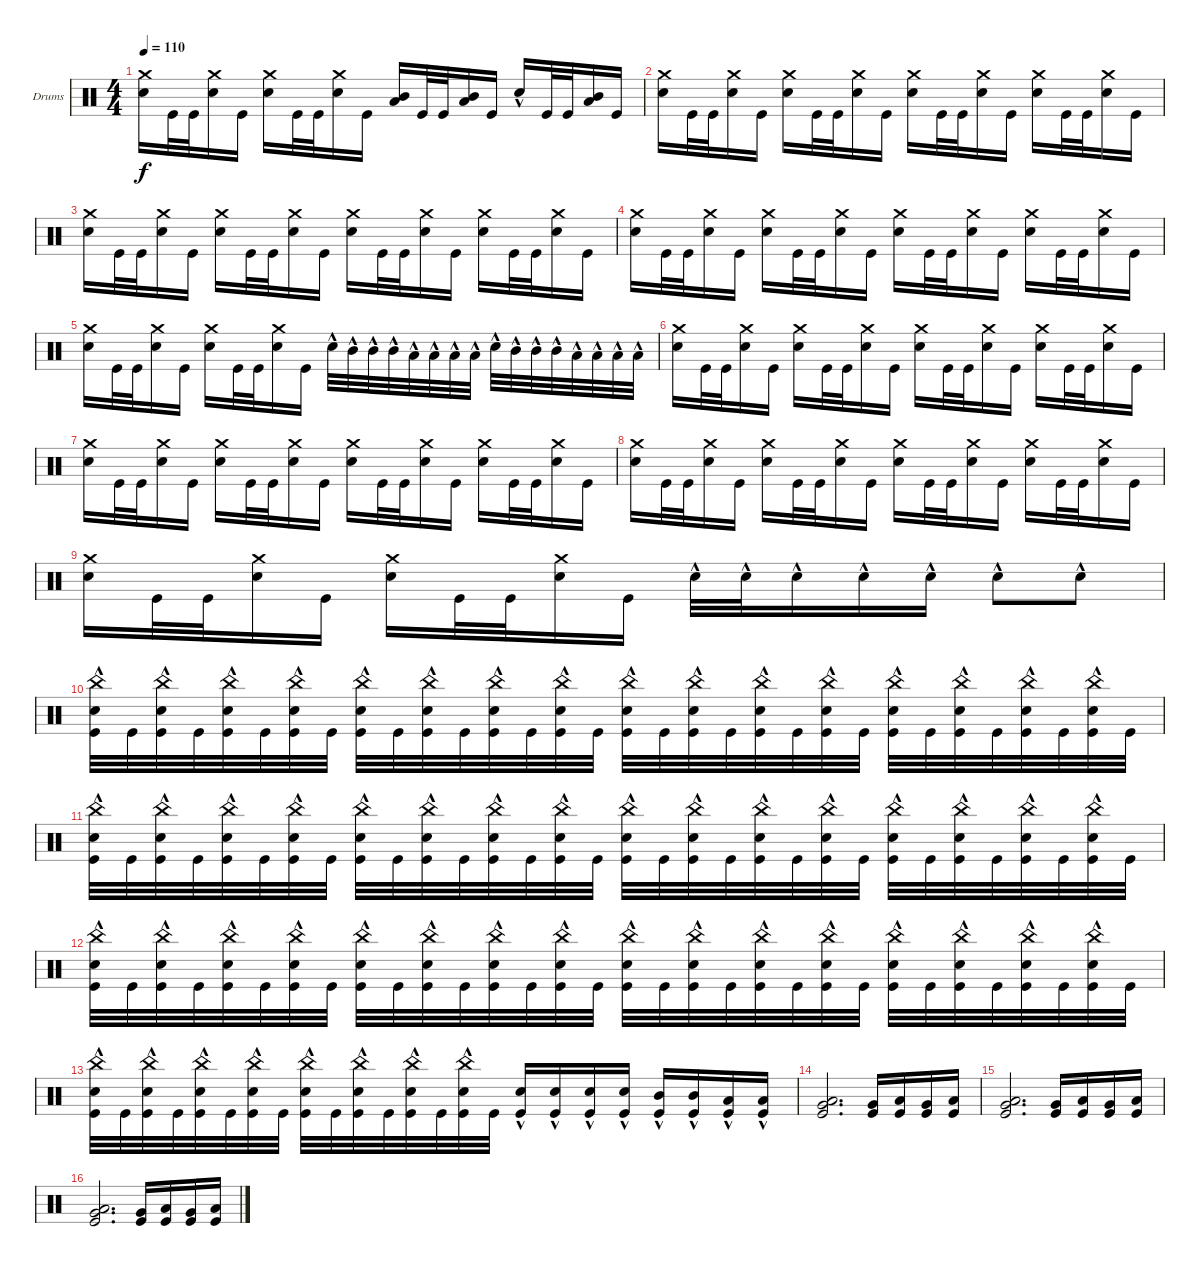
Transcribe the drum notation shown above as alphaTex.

\defaultSystemsLayout 4
\bracketExtendMode groupsimilarinstruments
\firstSystemTrackNameOrientation horizontal
\otherSystemsTrackNameOrientation horizontal
\track ("Drumkit" "Drums") {instrument percussion}
\staff {score}
\articulation defaults
\ts (4 4)
\tempo 110
\clef neutral
\scale
0.333333
\ks c
("Snare (hit) 2" "Crash medium (hit)").16{dy f} "Kick (hit)".32 "Kick (hit)".32 ("Snare (hit) 2" "Crash medium (hit)").16 "Kick (hit)".16 ("Snare (hit) 2" "Crash medium (hit)").16 "Kick (hit)".32 "Kick (hit)".32 ("Snare (hit) 2" "Crash medium (hit)").16 "Kick (hit)".16 ("Mid Tom (hit)" "Low Tom (hit)").16 "Kick (hit)".32 "Kick (hit)".32 ("Low Tom (hit)" "Mid Tom (hit)").16 "Kick (hit)".16 "Snare (hit) 2"{hac}.16 "Kick (hit)".32 "Kick (hit)".32 ("Mid Tom (hit)" "Low Tom (hit)").16 "Kick (hit)".16 |
\scale
0.333333 ("Snare (hit) 2" "Crash medium (hit)").16 "Kick (hit)".32 "Kick (hit)".32 ("Snare (hit) 2" "Crash medium (hit)").16 "Kick (hit)".16 ("Snare (hit) 2" "Crash medium (hit)").16 "Kick (hit)".32 "Kick (hit)".32 ("Snare (hit) 2" "Crash medium (hit)").16 "Kick (hit)".16 ("Snare (hit) 2" "Crash medium (hit)").16 "Kick (hit)".32 "Kick (hit)".32 ("Snare (hit) 2" "Crash medium (hit)").16 "Kick (hit)".16 ("Snare (hit) 2" "Crash medium (hit)").16 "Kick (hit)".32 "Kick (hit)".32 ("Snare (hit) 2" "Crash medium (hit)").16 "Kick (hit)".16 |
\scale
0.333333 ("Snare (hit) 2" "Crash medium (hit)").16 "Kick (hit)".32 "Kick (hit)".32 ("Snare (hit) 2" "Crash medium (hit)").16 "Kick (hit)".16 ("Snare (hit) 2" "Crash medium (hit)").16 "Kick (hit)".32 "Kick (hit)".32 ("Snare (hit) 2" "Crash medium (hit)").16 "Kick (hit)".16 ("Snare (hit) 2" "Crash medium (hit)").16 "Kick (hit)".32 "Kick (hit)".32 ("Snare (hit) 2" "Crash medium (hit)").16 "Kick (hit)".16 ("Snare (hit) 2" "Crash medium (hit)").16 "Kick (hit)".32 "Kick (hit)".32 ("Snare (hit) 2" "Crash medium (hit)").16 "Kick (hit)".16 |
\scale
0.333333 ("Snare (hit) 2" "Crash medium (hit)").16 "Kick (hit)".32 "Kick (hit)".32 ("Snare (hit) 2" "Crash medium (hit)").16 "Kick (hit)".16 ("Snare (hit) 2" "Crash medium (hit)").16 "Kick (hit)".32 "Kick (hit)".32 ("Snare (hit) 2" "Crash medium (hit)").16 "Kick (hit)".16 ("Snare (hit) 2" "Crash medium (hit)").16 "Kick (hit)".32 "Kick (hit)".32 ("Snare (hit) 2" "Crash medium (hit)").16 "Kick (hit)".16 ("Snare (hit) 2" "Crash medium (hit)").16 "Kick (hit)".32 "Kick (hit)".32 ("Snare (hit) 2" "Crash medium (hit)").16 "Kick (hit)".16 |
\scale
0.333333 ("Snare (hit) 2" "Crash medium (hit)").16 "Kick (hit)".32 "Kick (hit)".32 ("Snare (hit) 2" "Crash medium (hit)").16 "Kick (hit)".16 ("Snare (hit) 2" "Crash medium (hit)").16 "Kick (hit)".32 "Kick (hit)".32 ("Snare (hit) 2" "Crash medium (hit)").16 "Kick (hit)".16 "Snare (hit) 2"{hac}.32 "Mid Tom (hit)"{hac}.32 "Mid Tom (hit)"{hac}.32 "Mid Tom (hit)"{hac}.32 "Low Tom (hit)"{hac}.32 "Low Tom (hit)"{hac}.32 "Low Tom (hit)"{hac}.32 "Low Tom (hit)"{hac}.32 "Snare (hit) 2"{hac}.32 "Mid Tom (hit)"{hac}.32 "Mid Tom (hit)"{hac}.32 "Mid Tom (hit)"{hac}.32 "Low Tom (hit)"{hac}.32 "Low Tom (hit)"{hac}.32 "Low Tom (hit)"{hac}.32 "Low Tom (hit)"{hac}.32 |
\scale
0.333333 ("Snare (hit) 2" "Crash medium (hit)").16 "Kick (hit)".32 "Kick (hit)".32 ("Snare (hit) 2" "Crash medium (hit)").16 "Kick (hit)".16 ("Snare (hit) 2" "Crash medium (hit)").16 "Kick (hit)".32 "Kick (hit)".32 ("Snare (hit) 2" "Crash medium (hit)").16 "Kick (hit)".16 ("Snare (hit) 2" "Crash medium (hit)").16 "Kick (hit)".32 "Kick (hit)".32 ("Snare (hit) 2" "Crash medium (hit)").16 "Kick (hit)".16 ("Snare (hit) 2" "Crash medium (hit)").16 "Kick (hit)".32 "Kick (hit)".32 ("Snare (hit) 2" "Crash medium (hit)").16 "Kick (hit)".16 |
\scale
0.333333 ("Snare (hit) 2" "Crash medium (hit)").16 "Kick (hit)".32 "Kick (hit)".32 ("Snare (hit) 2" "Crash medium (hit)").16 "Kick (hit)".16 ("Snare (hit) 2" "Crash medium (hit)").16 "Kick (hit)".32 "Kick (hit)".32 ("Snare (hit) 2" "Crash medium (hit)").16 "Kick (hit)".16 ("Snare (hit) 2" "Crash medium (hit)").16 "Kick (hit)".32 "Kick (hit)".32 ("Snare (hit) 2" "Crash medium (hit)").16 "Kick (hit)".16 ("Snare (hit) 2" "Crash medium (hit)").16 "Kick (hit)".32 "Kick (hit)".32 ("Snare (hit) 2" "Crash medium (hit)").16 "Kick (hit)".16 |
\scale
0.333333 ("Snare (hit) 2" "Crash medium (hit)").16 "Kick (hit)".32 "Kick (hit)".32 ("Snare (hit) 2" "Crash medium (hit)").16 "Kick (hit)".16 ("Snare (hit) 2" "Crash medium (hit)").16 "Kick (hit)".32 "Kick (hit)".32 ("Snare (hit) 2" "Crash medium (hit)").16 "Kick (hit)".16 ("Snare (hit) 2" "Crash medium (hit)").16 "Kick (hit)".32 "Kick (hit)".32 ("Snare (hit) 2" "Crash medium (hit)").16 "Kick (hit)".16 ("Snare (hit) 2" "Crash medium (hit)").16 "Kick (hit)".32 "Kick (hit)".32 ("Snare (hit) 2" "Crash medium (hit)").16 "Kick (hit)".16 |
\scale
0.333333 ("Snare (hit) 2" "Crash medium (hit)").16 "Kick (hit)".32 "Kick (hit)".32 ("Snare (hit) 2" "Crash medium (hit)").16 "Kick (hit)".16 ("Snare (hit) 2" "Crash medium (hit)").16 "Kick (hit)".32 "Kick (hit)".32 ("Snare (hit) 2" "Crash medium (hit)").16 "Kick (hit)".16 "Snare (hit) 2"{hac}.32 "Snare (hit) 2"{hac}.32 "Snare (hit) 2"{hac}.16 "Snare (hit) 2"{hac}.16 "Snare (hit) 2"{hac}.16 "Snare (hit) 2"{hac}.8 "Snare (hit) 2"{hac}.8 |
\scale
0.333333 ("Kick (hit)" "Snare (hit) 2"{hac} "China (hit)").32 "Kick (hit)".32 ("Kick (hit)" "Snare (hit) 2"{hac} "China (hit)").32 "Kick (hit)".32 ("Kick (hit)" "Snare (hit) 2"{hac} "China (hit)").32 "Kick (hit)".32 ("Kick (hit)" "Snare (hit) 2"{hac} "China (hit)").32 "Kick (hit)".32 ("Kick (hit)" "Snare (hit) 2"{hac} "China (hit)").32 "Kick (hit)".32 ("Kick (hit)" "Snare (hit) 2"{hac} "China (hit)").32 "Kick (hit)".32 ("Kick (hit)" "Snare (hit) 2"{hac} "China (hit)").32 "Kick (hit)".32 ("Kick (hit)" "Snare (hit) 2"{hac} "China (hit)").32 "Kick (hit)".32 ("Kick (hit)" "Snare (hit) 2"{hac} "China (hit)").32 "Kick (hit)".32 ("Kick (hit)" "Snare (hit) 2"{hac} "China (hit)").32 "Kick (hit)".32 ("Kick (hit)" "Snare (hit) 2"{hac} "China (hit)").32 "Kick (hit)".32 ("Kick (hit)" "Snare (hit) 2"{hac} "China (hit)").32 "Kick (hit)".32 ("Kick (hit)" "Snare (hit) 2"{hac} "China (hit)").32 "Kick (hit)".32 ("Kick (hit)" "Snare (hit) 2"{hac} "China (hit)").32 "Kick (hit)".32 ("Kick (hit)" "Snare (hit) 2"{hac} "China (hit)").32 "Kick (hit)".32 ("Kick (hit)" "Snare (hit) 2"{hac} "China (hit)").32 "Kick (hit)".32 |
\scale
0.333333 ("Kick (hit)" "Snare (hit) 2"{hac} "China (hit)").32 "Kick (hit)".32 ("Kick (hit)" "Snare (hit) 2"{hac} "China (hit)").32 "Kick (hit)".32 ("Kick (hit)" "Snare (hit) 2"{hac} "China (hit)").32 "Kick (hit)".32 ("Kick (hit)" "Snare (hit) 2"{hac} "China (hit)").32 "Kick (hit)".32 ("Kick (hit)" "Snare (hit) 2"{hac} "China (hit)").32 "Kick (hit)".32 ("Kick (hit)" "Snare (hit) 2"{hac} "China (hit)").32 "Kick (hit)".32 ("Kick (hit)" "Snare (hit) 2"{hac} "China (hit)").32 "Kick (hit)".32 ("Kick (hit)" "Snare (hit) 2"{hac} "China (hit)").32 "Kick (hit)".32 ("Kick (hit)" "Snare (hit) 2"{hac} "China (hit)").32 "Kick (hit)".32 ("Kick (hit)" "Snare (hit) 2"{hac} "China (hit)").32 "Kick (hit)".32 ("Kick (hit)" "Snare (hit) 2"{hac} "China (hit)").32 "Kick (hit)".32 ("Kick (hit)" "Snare (hit) 2"{hac} "China (hit)").32 "Kick (hit)".32 ("Kick (hit)" "Snare (hit) 2"{hac} "China (hit)").32 "Kick (hit)".32 ("Kick (hit)" "Snare (hit) 2"{hac} "China (hit)").32 "Kick (hit)".32 ("Kick (hit)" "Snare (hit) 2"{hac} "China (hit)").32 "Kick (hit)".32 ("Kick (hit)" "Snare (hit) 2"{hac} "China (hit)").32 "Kick (hit)".32 |
\scale
0.333333 ("Kick (hit)" "Snare (hit) 2"{hac} "China (hit)").32 "Kick (hit)".32 ("Kick (hit)" "Snare (hit) 2"{hac} "China (hit)").32 "Kick (hit)".32 ("Kick (hit)" "Snare (hit) 2"{hac} "China (hit)").32 "Kick (hit)".32 ("Kick (hit)" "Snare (hit) 2"{hac} "China (hit)").32 "Kick (hit)".32 ("Kick (hit)" "Snare (hit) 2"{hac} "China (hit)").32 "Kick (hit)".32 ("Kick (hit)" "Snare (hit) 2"{hac} "China (hit)").32 "Kick (hit)".32 ("Kick (hit)" "Snare (hit) 2"{hac} "China (hit)").32 "Kick (hit)".32 ("Kick (hit)" "Snare (hit) 2"{hac} "China (hit)").32 "Kick (hit)".32 ("Kick (hit)" "Snare (hit) 2"{hac} "China (hit)").32 "Kick (hit)".32 ("Kick (hit)" "Snare (hit) 2"{hac} "China (hit)").32 "Kick (hit)".32 ("Kick (hit)" "Snare (hit) 2"{hac} "China (hit)").32 "Kick (hit)".32 ("Kick (hit)" "Snare (hit) 2"{hac} "China (hit)").32 "Kick (hit)".32 ("Kick (hit)" "Snare (hit) 2"{hac} "China (hit)").32 "Kick (hit)".32 ("Kick (hit)" "Snare (hit) 2"{hac} "China (hit)").32 "Kick (hit)".32 ("Kick (hit)" "Snare (hit) 2"{hac} "China (hit)").32 "Kick (hit)".32 ("Kick (hit)" "Snare (hit) 2"{hac} "China (hit)").32 "Kick (hit)".32 |
\scale
0.333333 ("Kick (hit)" "Snare (hit) 2"{hac} "China (hit)").32 "Kick (hit)".32 ("Kick (hit)" "Snare (hit) 2"{hac} "China (hit)").32 "Kick (hit)".32 ("Kick (hit)" "Snare (hit) 2"{hac} "China (hit)").32 "Kick (hit)".32 ("Kick (hit)" "Snare (hit) 2"{hac} "China (hit)").32 "Kick (hit)".32 ("Kick (hit)" "Snare (hit) 2"{hac} "China (hit)").32 "Kick (hit)".32 ("Kick (hit)" "Snare (hit) 2"{hac} "China (hit)").32 "Kick (hit)".32 ("Kick (hit)" "Snare (hit) 2"{hac} "China (hit)").32 "Kick (hit)".32 ("Kick (hit)" "Snare (hit) 2"{hac} "China (hit)").32 "Kick (hit)".32 ("Kick (hit)" "Snare (hit) 2"{hac}).16 ("Kick (hit)" "Snare (hit) 2"{hac}).16 ("Kick (hit)" "Snare (hit) 2"{hac}).16 ("Kick (hit)" "Snare (hit) 2"{hac}).16 ("Kick (hit)" "Mid Tom (hit)"{hac}).16 ("Kick (hit)" "Mid Tom (hit)"{hac}).16 ("Kick (hit)" "Low Tom (hit)"{hac}).16 ("Kick (hit)" "Low Tom (hit)"{hac}).16 |
\scale
0.333333 ("Very Low Tom (hit)" "Low Tom (hit)" "Kick (hit)").2{d} ("Kick (hit)" "Very Low Tom (hit)").16 ("Kick (hit)" "Low Tom (hit)").16 ("Kick (hit)" "Very Low Tom (hit)").16 ("Kick (hit)" "Low Tom (hit)").16 |
("Very Low Tom (hit)" "Low Tom (hit)" "Kick (hit)").2{d} ("Kick (hit)" "Very Low Tom (hit)").16 ("Kick (hit)" "Low Tom (hit)").16 ("Kick (hit)" "Very Low Tom (hit)").16 ("Kick (hit)" "Low Tom (hit)").16 |
("Very Low Tom (hit)" "Low Tom (hit)" "Kick (hit)").2{d} ("Kick (hit)" "Very Low Tom (hit)").16 ("Kick (hit)" "Low Tom (hit)").16 ("Kick (hit)" "Very Low Tom (hit)").16 ("Kick (hit)" "Low Tom (hit)").16
